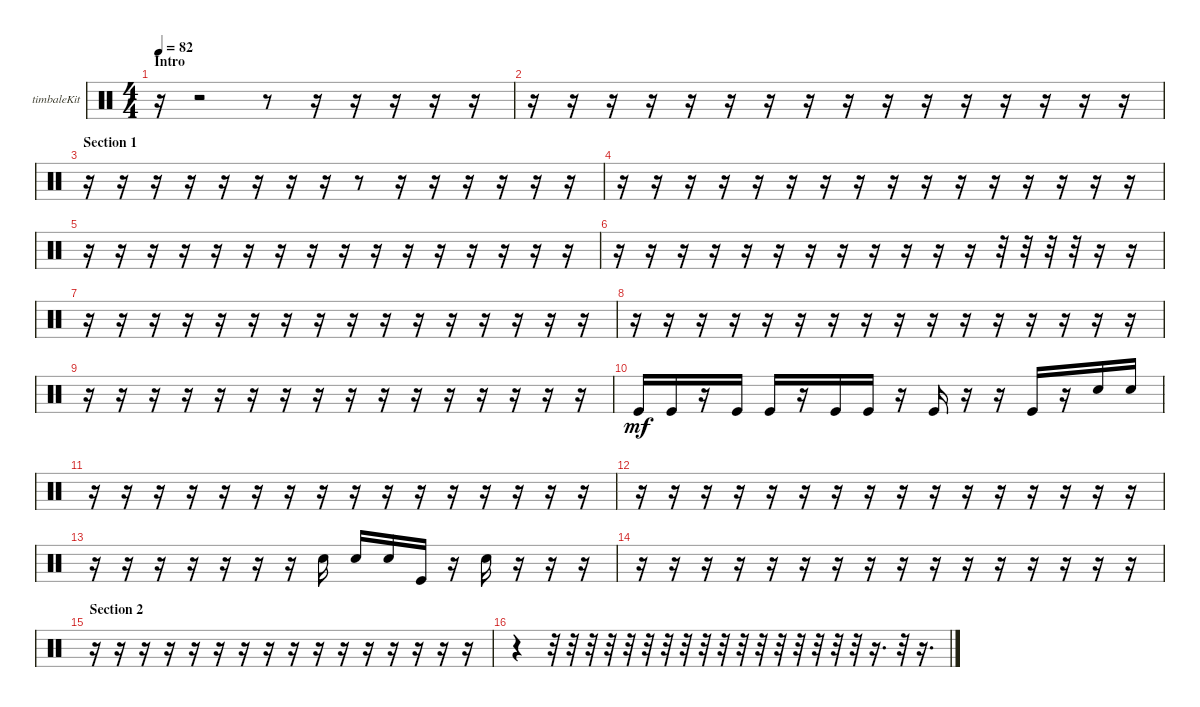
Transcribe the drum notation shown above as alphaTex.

\bracketExtendMode groupsimilarinstruments
\firstSystemTrackNameOrientation horizontal
\otherSystemsTrackNameOrientation horizontal
\track ("Timbale" "timbaleKit") {instrument percussion}
\staff {score}
\articulation defaults
\ts (4 4)
\beaming (8 2 2 2 2)
\section ("" "Intro")
\tempo 82
\clef neutral
\ks aminor
r.16{dy mf} r.2 r.8 r.16 r.16 r.16 r.16 r.16 |
r.16 r.16 r.16 r.16 r.16 r.16 r.16 r.16 r.16 r.16 r.16 r.16 r.16 r.16 r.16 r.16 |
\section ("" "Section 1")
r.16 r.16 r.16 r.16 r.16 r.16 r.16 r.16 r.8 r.16 r.16 r.16 r.16 r.16 r.16 |
r.16 r.16 r.16 r.16 r.16 r.16 r.16 r.16 r.16 r.16 r.16 r.16 r.16 r.16 r.16 r.16 |
r.16 r.16 r.16 r.16 r.16 r.16 r.16 r.16 r.16 r.16 r.16 r.16 r.16 r.16 r.16 r.16 |
r.16 r.16 r.16 r.16 r.16 r.16 r.16 r.16 r.16 r.16 r.16 r.16 r.32 r.32 r.32 r.32 r.16 r.16 |
r.16 r.16 r.16 r.16 r.16 r.16 r.16 r.16 r.16 r.16 r.16 r.16 r.16 r.16 r.16 r.16 |
r.16 r.16 r.16 r.16 r.16 r.16 r.16 r.16 r.16 r.16 r.16 r.16 r.16 r.16 r.16 r.16 |
r.16 r.16 r.16 r.16 r.16 r.16 r.16 r.16 r.16 r.16 r.16 r.16 r.16 r.16 r.16 r.16 |
"Kick (hit)".16 "Kick (hit)".16 r.16 "Kick (hit)".16 "Kick (hit)".16 r.16 "Kick (hit)".16 "Kick (hit)".16 r.16 "Kick (hit)".16 r.16 r.16 "Kick (hit)".16 r.16 "Snare (hit) 2".16 "Snare (hit) 2".16 |
r.16 r.16 r.16 r.16 r.16 r.16 r.16 r.16 r.16 r.16 r.16 r.16 r.16 r.16 r.16 r.16 |
r.16 r.16 r.16 r.16 r.16 r.16 r.16 r.16 r.16 r.16 r.16 r.16 r.16 r.16 r.16 r.16 |
r.16 r.16 r.16 r.16 r.16 r.16 r.16 "Snare (hit) 2".16 "Snare (hit) 2".16 "Snare (hit) 2".16 "Kick (hit)".16 r.16 "Snare (hit) 2".16 r.16 r.16 r.16 |
r.16 r.16 r.16 r.16 r.16 r.16 r.16 r.16 r.16 r.16 r.16 r.16 r.16 r.16 r.16 r.16 |
\section ("" "Section 2")
r.16 r.16 r.16 r.16 r.16 r.16 r.16 r.16 r.16 r.16 r.16 r.16 r.16 r.16 r.16 r.16 |
r.4 r.32 r.32 r.32 r.32 r.32 r.32 r.32 r.32 r.32 r.32 r.32 r.32 r.32 r.32 r.32 r.32 r.32 r.16{d} r.32 r.16{d}
